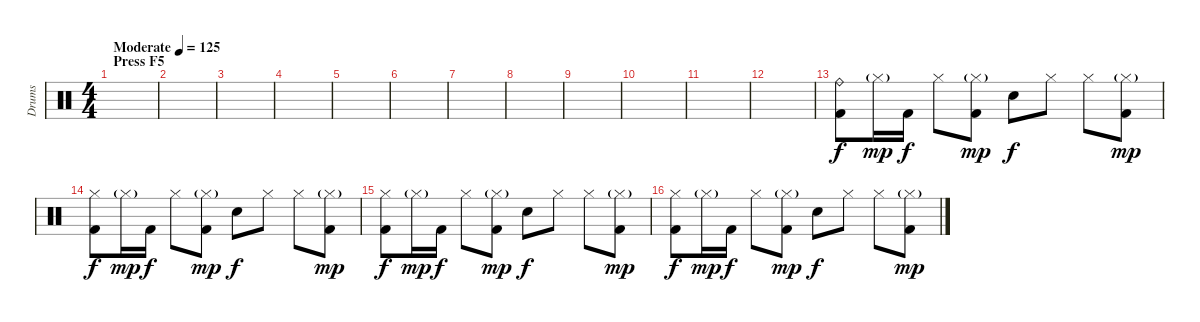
\track ("Drums" "Drums") {instrument percussion}
\staff {score}
\articulation defaults
\ts (4 4)
\section ("" "Press F5")
\tempo (125 "Moderate")
\clef neutral
\ks c
|
|
|
|
|
|
|
|
|
|
|
|
("Ride (bell)" "Kick (hit) 2").8 "Hi-Hat (closed)"{g}.16{dy mp} "Kick (hit) 2".16{dy f} "Hi-Hat (closed)".8 ("Hi-Hat (closed)"{g} "Kick (hit) 2").8{dy mp} "Snare (hit) 2".8{dy f} "Hi-Hat (closed)".8 "Hi-Hat (closed)".8 ("Hi-Hat (closed)"{g} "Kick (hit) 2").8{dy mp} |
("Hi-Hat (closed)" "Kick (hit) 2").8{dy f} "Hi-Hat (closed)"{g}.16{dy mp} "Kick (hit) 2".16{dy f} "Hi-Hat (closed)".8 ("Hi-Hat (closed)"{g} "Kick (hit) 2").8{dy mp} "Snare (hit) 2".8{dy f} "Hi-Hat (closed)".8 "Hi-Hat (closed)".8 ("Hi-Hat (closed)"{g} "Kick (hit) 2").8{dy mp} |
("Hi-Hat (closed)" "Kick (hit) 2").8{dy f} "Hi-Hat (closed)"{g}.16{dy mp} "Kick (hit) 2".16{dy f} "Hi-Hat (closed)".8 ("Hi-Hat (closed)"{g} "Kick (hit) 2").8{dy mp} "Snare (hit) 2".8{dy f} "Hi-Hat (closed)".8 "Hi-Hat (closed)".8 ("Hi-Hat (closed)"{g} "Kick (hit) 2").8{dy mp} |
("Hi-Hat (closed)" "Kick (hit) 2").8{dy f} "Hi-Hat (closed)"{g}.16{dy mp} "Kick (hit) 2".16{dy f} "Hi-Hat (closed)".8 ("Hi-Hat (closed)"{g} "Kick (hit) 2").8{dy mp} "Snare (hit) 2".8{dy f} "Hi-Hat (closed)".8 "Hi-Hat (closed)".8 ("Hi-Hat (closed)"{g} "Kick (hit) 2").8{dy mp}
